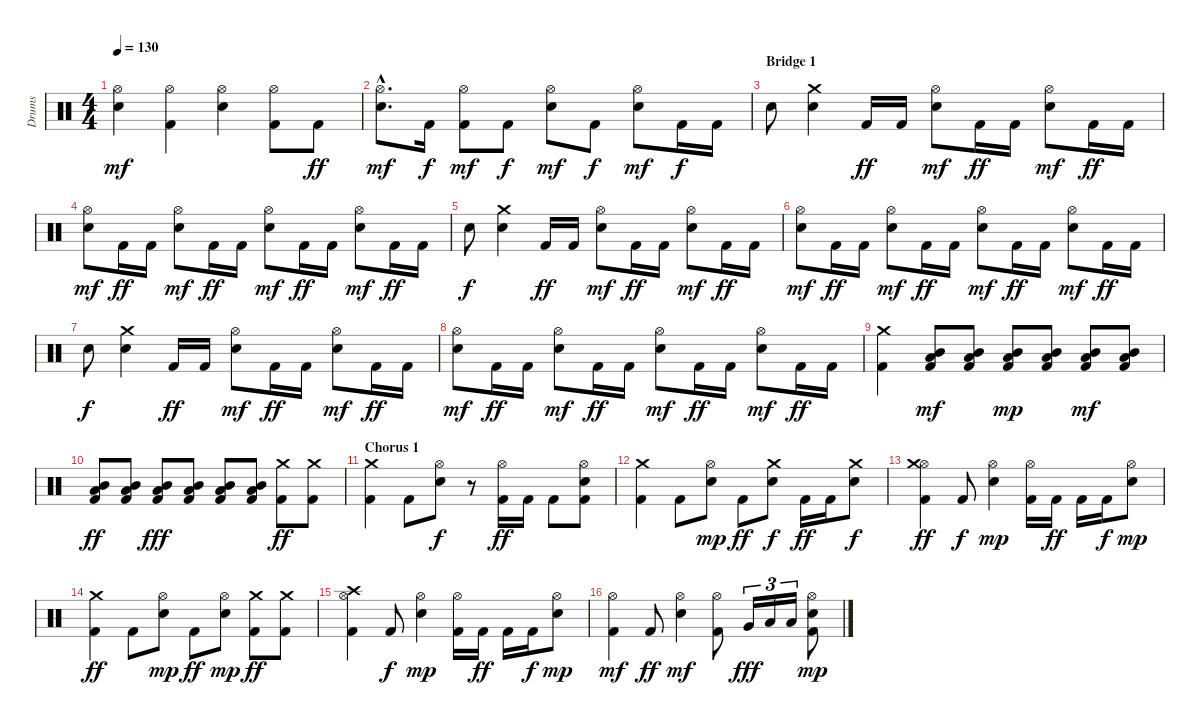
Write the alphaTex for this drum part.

\track ("Drums" "Drums") {instrument percussion}
\staff {score}
\articulation defaults
\ts (4 4)
\tempo 130
\clef neutral
\ks c
("Hi-Hat (open)" "Snare (hit) 2").4{dy mf} ("Kick (hit) 2" "Hi-Hat (open)").4 ("Hi-Hat (open)" "Snare (hit) 2").4 ("Kick (hit) 2" "Hi-Hat (open)").8 "Kick (hit) 2".8{dy ff} |
("Hi-Hat (open)"{hac} "Snare (hit) 2"{hac}).8{d dy mf} "Kick (hit) 2".16{dy f} ("Kick (hit) 2" "Hi-Hat (open)").8{dy mf} "Kick (hit) 2".8{dy f} ("Hi-Hat (open)" "Snare (hit) 2").8{dy mf} "Kick (hit) 2".8{dy f} ("Hi-Hat (open)" "Snare (hit) 2").8{dy mf} "Kick (hit) 2".16{dy f} "Kick (hit) 2".16 |
\section ("" "Bridge 1")
"Snare (hit) 2".8 ("Snare (hit) 2" "Crash medium (hit)").4 "Kick (hit) 2".16{dy ff} "Kick (hit) 2".16 ("Hi-Hat (open)" "Snare (hit) 2").8{dy mf} "Kick (hit) 2".16{dy ff} "Kick (hit) 2".16 ("Hi-Hat (open)" "Snare (hit) 2").8{dy mf} "Kick (hit) 2".16{dy ff} "Kick (hit) 2".16 |
("Hi-Hat (open)" "Snare (hit) 2").8{dy mf} "Kick (hit) 2".16{dy ff} "Kick (hit) 2".16 ("Hi-Hat (open)" "Snare (hit) 2").8{dy mf} "Kick (hit) 2".16{dy ff} "Kick (hit) 2".16 ("Hi-Hat (open)" "Snare (hit) 2").8{dy mf} "Kick (hit) 2".16{dy ff} "Kick (hit) 2".16 ("Hi-Hat (open)" "Snare (hit) 2").8{dy mf} "Kick (hit) 2".16{dy ff} "Kick (hit) 2".16 |
"Snare (hit) 2".8{dy f} ("Snare (hit) 2" "Crash medium (hit)").4 "Kick (hit) 2".16{dy ff} "Kick (hit) 2".16 ("Hi-Hat (open)" "Snare (hit) 2").8{dy mf} "Kick (hit) 2".16{dy ff} "Kick (hit) 2".16 ("Hi-Hat (open)" "Snare (hit) 2").8{dy mf} "Kick (hit) 2".16{dy ff} "Kick (hit) 2".16 |
("Hi-Hat (open)" "Snare (hit) 2").8{dy mf} "Kick (hit) 2".16{dy ff} "Kick (hit) 2".16 ("Hi-Hat (open)" "Snare (hit) 2").8{dy mf} "Kick (hit) 2".16{dy ff} "Kick (hit) 2".16 ("Hi-Hat (open)" "Snare (hit) 2").8{dy mf} "Kick (hit) 2".16{dy ff} "Kick (hit) 2".16 ("Hi-Hat (open)" "Snare (hit) 2").8{dy mf} "Kick (hit) 2".16{dy ff} "Kick (hit) 2".16 |
"Snare (hit) 2".8{dy f} ("Snare (hit) 2" "Crash medium (hit)").4 "Kick (hit) 2".16{dy ff} "Kick (hit) 2".16 ("Hi-Hat (open)" "Snare (hit) 2").8{dy mf} "Kick (hit) 2".16{dy ff} "Kick (hit) 2".16 ("Hi-Hat (open)" "Snare (hit) 2").8{dy mf} "Kick (hit) 2".16{dy ff} "Kick (hit) 2".16 |
("Hi-Hat (open)" "Snare (hit) 2").8{dy mf} "Kick (hit) 2".16{dy ff} "Kick (hit) 2".16 ("Hi-Hat (open)" "Snare (hit) 2").8{dy mf} "Kick (hit) 2".16{dy ff} "Kick (hit) 2".16 ("Hi-Hat (open)" "Snare (hit) 2").8{dy mf} "Kick (hit) 2".16{dy ff} "Kick (hit) 2".16 ("Hi-Hat (open)" "Snare (hit) 2").8{dy mf} "Kick (hit) 2".16{dy ff} "Kick (hit) 2".16 |
("Kick (hit) 2" "Crash medium (hit)").4 ("Kick (hit) 2" "Mid Tom (hit)" "Low Floor Tom (hit)").8{dy mf} ("Kick (hit) 2" "Mid Tom (hit)" "Low Floor Tom (hit)").8 ("Kick (hit) 2" "Mid Tom (hit)" "Low Floor Tom (hit)").8{dy mp} ("Kick (hit) 2" "Mid Tom (hit)" "Low Floor Tom (hit)").8 ("Kick (hit) 2" "Mid Tom (hit)" "Low Floor Tom (hit)").8{dy mf} ("Kick (hit) 2" "Mid Tom (hit)" "Low Floor Tom (hit)").8 |
("Kick (hit) 2" "Mid Tom (hit)" "Low Floor Tom (hit)").8{dy ff} ("Kick (hit) 2" "Mid Tom (hit)" "Low Floor Tom (hit)").8 ("Kick (hit) 2" "Mid Tom (hit)" "Low Floor Tom (hit)").8{dy fff} ("Kick (hit) 2" "Mid Tom (hit)" "Low Floor Tom (hit)").8 ("Kick (hit) 2" "Mid Tom (hit)" "Low Floor Tom (hit)").8 ("Kick (hit) 2" "Mid Tom (hit)" "Low Floor Tom (hit)").8 ("Kick (hit) 2" "Crash medium (hit)").8{dy ff} ("Kick (hit) 2" "Crash medium (hit)").8 |
\section ("" "Chorus 1")
("Kick (hit) 2" "Crash medium (hit)").4 "Kick (hit) 2".8 ("Hi-Hat (open)" "Snare (hit) 2").8{dy f} r.8 ("Kick (hit) 2" "Hi-Hat (open)").16{dy ff} "Kick (hit) 2".16 "Kick (hit) 2".8 ("Kick (hit) 2" "Hi-Hat (open)" "Snare (hit) 2").8 |
("Kick (hit) 2" "Crash medium (hit)").4 "Kick (hit) 2".8 ("Hi-Hat (open)" "Snare (hit) 2").8{dy mp} "Kick (hit) 2".8{dy ff} ("Snare (hit) 2" "Crash medium (hit)").8{dy f} "Kick (hit) 2".16{dy ff} "Kick (hit) 2".16 ("Snare (hit) 2" "Crash medium (hit)").8{dy f} |
("Kick (hit) 2" "Hi-Hat (open)" "Crash medium (hit)").4{dy ff} "Kick (hit) 2".8{dy f} ("Hi-Hat (open)" "Snare (hit) 2").4{dy mp} ("Kick (hit) 2" "Hi-Hat (open)").16 "Kick (hit) 2".16{dy ff} "Kick (hit) 2".16 "Kick (hit) 2".16{dy f} ("Hi-Hat (open)" "Snare (hit) 2").8{dy mp} |
("Kick (hit) 2" "Crash medium (hit)").4{dy ff} "Kick (hit) 2".8 ("Hi-Hat (open)" "Snare (hit) 2").8{dy mp} "Kick (hit) 2".8{dy ff} ("Hi-Hat (open)" "Snare (hit) 2").8{dy mp} ("Kick (hit) 2" "Crash medium (hit)").8{dy ff} ("Kick (hit) 2" "Crash medium (hit)").8 |
("Kick (hit) 2" "Hi-Hat (open)" "Crash high (hit)").4 "Kick (hit) 2".8{dy f} ("Hi-Hat (open)" "Snare (hit) 2").4{dy mp} ("Kick (hit) 2" "Hi-Hat (open)").16 "Kick (hit) 2".16{dy ff} "Kick (hit) 2".16 "Kick (hit) 2".16{dy f} ("Hi-Hat (open)" "Snare (hit) 2").8{dy mp} |
("Kick (hit) 2" "Hi-Hat (open)").4{dy mf} "Kick (hit) 2".8{dy ff} ("Hi-Hat (open)" "Snare (hit) 2").4{dy mf} ("Kick (hit) 2" "Hi-Hat (open)").8 "Very Low Tom (hit)".16{tu (3 2) dy fff} "Low Floor Tom (hit)".16{tu (3 2)} "Low Floor Tom (hit)".16{tu (3 2)} ("Kick (hit) 2" "Hi-Hat (open)" "Snare (hit) 2").8{dy mp}
